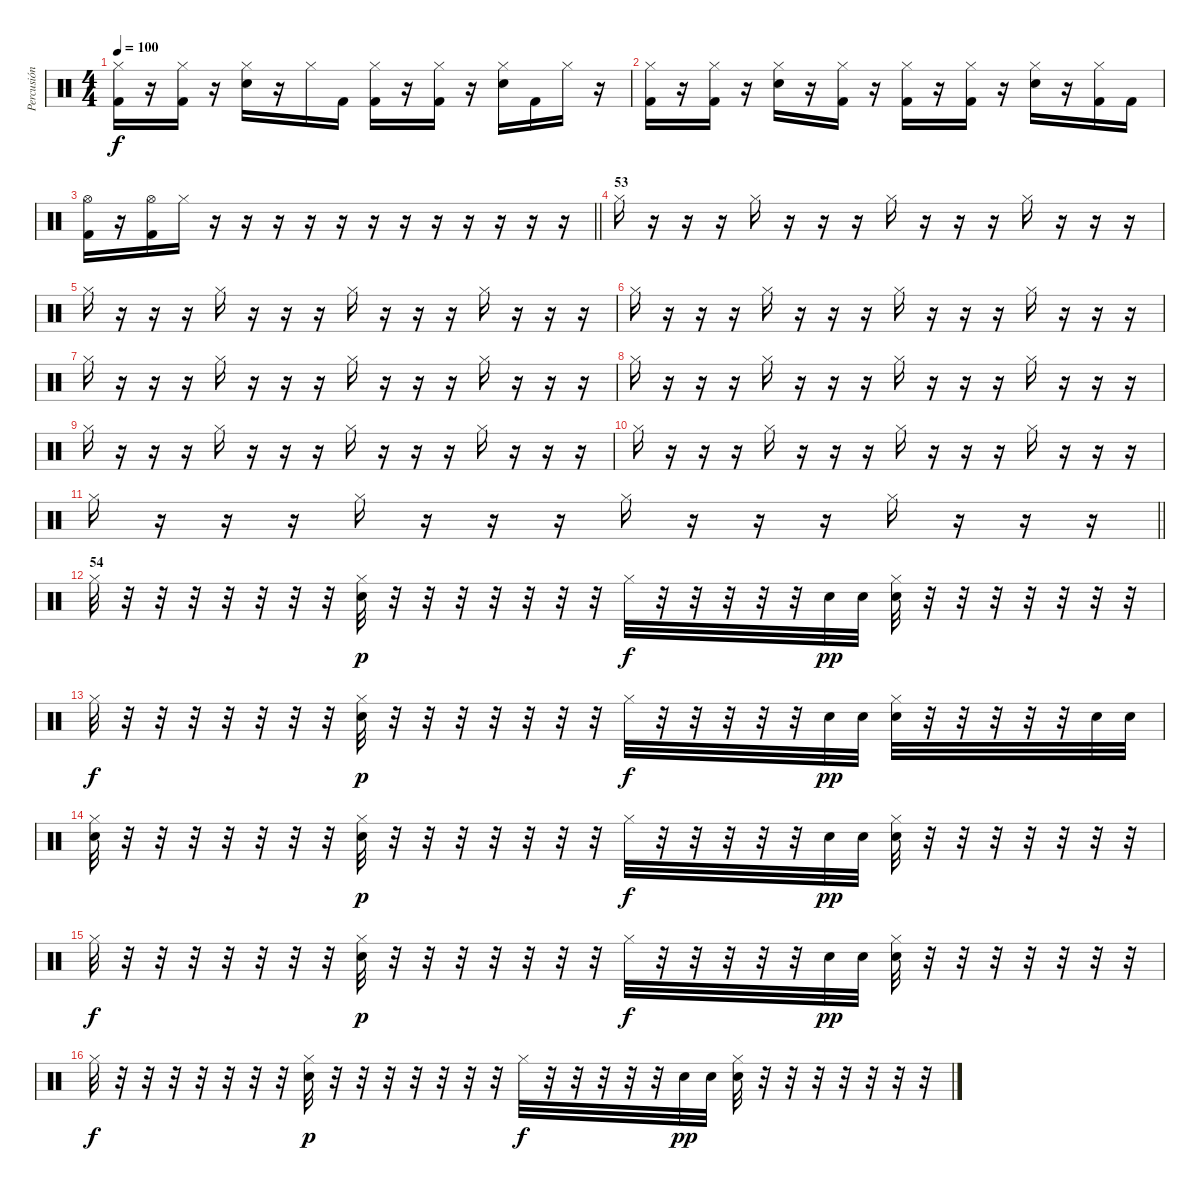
\track ("Percusión" "Percusión") {instrument percussion}
\staff {score}
\articulation defaults
\ts (4 4)
\tempo 100
\clef neutral
\ks c
("Hi-Hat (closed)" "Kick (hit) 2").16{dy f} r.16 ("Hi-Hat (closed)" "Kick (hit) 2").16 r.16 ("Hi-Hat (closed)" "Electric Snare (hit)").16 r.16 "Hi-Hat (closed)".16 "Kick (hit) 2".16 ("Hi-Hat (closed)" "Kick (hit) 2").16 r.16 ("Hi-Hat (closed)" "Kick (hit) 2").16 r.16 ("Hi-Hat (closed)" "Electric Snare (hit)").16 "Kick (hit) 2".16 "Hi-Hat (closed)".16 r.16 |
("Hi-Hat (closed)" "Kick (hit) 2").16 r.16 ("Hi-Hat (closed)" "Kick (hit) 2").16 r.16 ("Hi-Hat (closed)" "Electric Snare (hit)").16 r.16 ("Hi-Hat (closed)" "Kick (hit) 2").16 r.16 ("Hi-Hat (closed)" "Kick (hit) 2").16 r.16 ("Hi-Hat (closed)" "Kick (hit) 2").16 r.16 ("Hi-Hat (closed)" "Electric Snare (hit)").16 r.16 ("Hi-Hat (closed)" "Kick (hit) 2").16 "Kick (hit) 2".16 |
\barLineRight lightlight
("Hi-Hat (open)" "Kick (hit) 2").16 r.16 ("Hi-Hat (open)" "Kick (hit) 2").16 "Hi-Hat (closed)".16 r.16 r.16 r.16 r.16 r.16 r.16 r.16 r.16 r.16 r.16 r.16 r.16 |
\section ("" "53")
"Hi-Hat (closed)".16 r.16 r.16 r.16 "Hi-Hat (closed)".16 r.16 r.16 r.16 "Hi-Hat (closed)".16 r.16 r.16 r.16 "Hi-Hat (closed)".16 r.16 r.16 r.16 |
"Hi-Hat (closed)".16 r.16 r.16 r.16 "Hi-Hat (closed)".16 r.16 r.16 r.16 "Hi-Hat (closed)".16 r.16 r.16 r.16 "Hi-Hat (closed)".16 r.16 r.16 r.16 |
"Hi-Hat (closed)".16 r.16 r.16 r.16 "Hi-Hat (closed)".16 r.16 r.16 r.16 "Hi-Hat (closed)".16 r.16 r.16 r.16 "Hi-Hat (closed)".16 r.16 r.16 r.16 |
"Hi-Hat (closed)".16 r.16 r.16 r.16 "Hi-Hat (closed)".16 r.16 r.16 r.16 "Hi-Hat (closed)".16 r.16 r.16 r.16 "Hi-Hat (closed)".16 r.16 r.16 r.16 |
"Hi-Hat (closed)".16 r.16 r.16 r.16 "Hi-Hat (closed)".16 r.16 r.16 r.16 "Hi-Hat (closed)".16 r.16 r.16 r.16 "Hi-Hat (closed)".16 r.16 r.16 r.16 |
"Hi-Hat (closed)".16 r.16 r.16 r.16 "Hi-Hat (closed)".16 r.16 r.16 r.16 "Hi-Hat (closed)".16 r.16 r.16 r.16 "Hi-Hat (closed)".16 r.16 r.16 r.16 |
"Hi-Hat (closed)".16 r.16 r.16 r.16 "Hi-Hat (closed)".16 r.16 r.16 r.16 "Hi-Hat (closed)".16 r.16 r.16 r.16 "Hi-Hat (closed)".16 r.16 r.16 r.16 |
\barLineRight lightlight "Hi-Hat (closed)".16
r.16 r.16 r.16 "Hi-Hat (closed)".16 r.16 r.16 r.16 "Hi-Hat (closed)".16 r.16 r.16 r.16 "Hi-Hat (closed)".16 r.16 r.16 r.16 |
\section ("" "54")
"Hi-Hat (closed)".32 r.32 r.32 r.32 r.32 r.32 r.32 r.32 ("Hi-Hat (closed)" "Electric Snare (hit)").32{dy p} r.32 r.32 r.32 r.32 r.32 r.32 r.32 "Hi-Hat (closed)".32{dy f} r.32 r.32 r.32 r.32 r.32 "Electric Snare (hit)".32{dy pp} "Electric Snare (hit)".32 ("Hi-Hat (closed)" "Electric Snare (hit)").32 r.32 r.32 r.32 r.32 r.32 r.32 r.32 |
"Hi-Hat (closed)".32{dy f} r.32 r.32 r.32 r.32 r.32 r.32 r.32 ("Hi-Hat (closed)" "Electric Snare (hit)").32{dy p} r.32 r.32 r.32 r.32 r.32 r.32 r.32 "Hi-Hat (closed)".32{dy f} r.32 r.32 r.32 r.32 r.32 "Electric Snare (hit)".32{dy pp} "Electric Snare (hit)".32 ("Hi-Hat (closed)" "Electric Snare (hit)").32 r.32 r.32 r.32 r.32 r.32 "Electric Snare (hit)".32 "Electric Snare (hit)".32 |
("Hi-Hat (closed)" "Electric Snare (hit)").32 r.32 r.32 r.32 r.32 r.32 r.32 r.32 ("Hi-Hat (closed)" "Electric Snare (hit)").32{dy p} r.32 r.32 r.32 r.32 r.32 r.32 r.32 "Hi-Hat (closed)".32{dy f} r.32 r.32 r.32 r.32 r.32 "Electric Snare (hit)".32{dy pp} "Electric Snare (hit)".32 ("Hi-Hat (closed)" "Electric Snare (hit)").32 r.32 r.32 r.32 r.32 r.32 r.32 r.32 |
"Hi-Hat (closed)".32{dy f} r.32 r.32 r.32 r.32 r.32 r.32 r.32 ("Hi-Hat (closed)" "Electric Snare (hit)").32{dy p} r.32 r.32 r.32 r.32 r.32 r.32 r.32 "Hi-Hat (closed)".32{dy f} r.32 r.32 r.32 r.32 r.32 "Electric Snare (hit)".32{dy pp} "Electric Snare (hit)".32 ("Hi-Hat (closed)" "Electric Snare (hit)").32 r.32 r.32 r.32 r.32 r.32 r.32 r.32 |
"Hi-Hat (closed)".32{dy f} r.32 r.32 r.32 r.32 r.32 r.32 r.32 ("Hi-Hat (closed)" "Electric Snare (hit)").32{dy p} r.32 r.32 r.32 r.32 r.32 r.32 r.32 "Hi-Hat (closed)".32{dy f} r.32 r.32 r.32 r.32 r.32 "Electric Snare (hit)".32{dy pp} "Electric Snare (hit)".32 ("Hi-Hat (closed)" "Electric Snare (hit)").32 r.32 r.32 r.32 r.32 r.32 r.32 r.32
